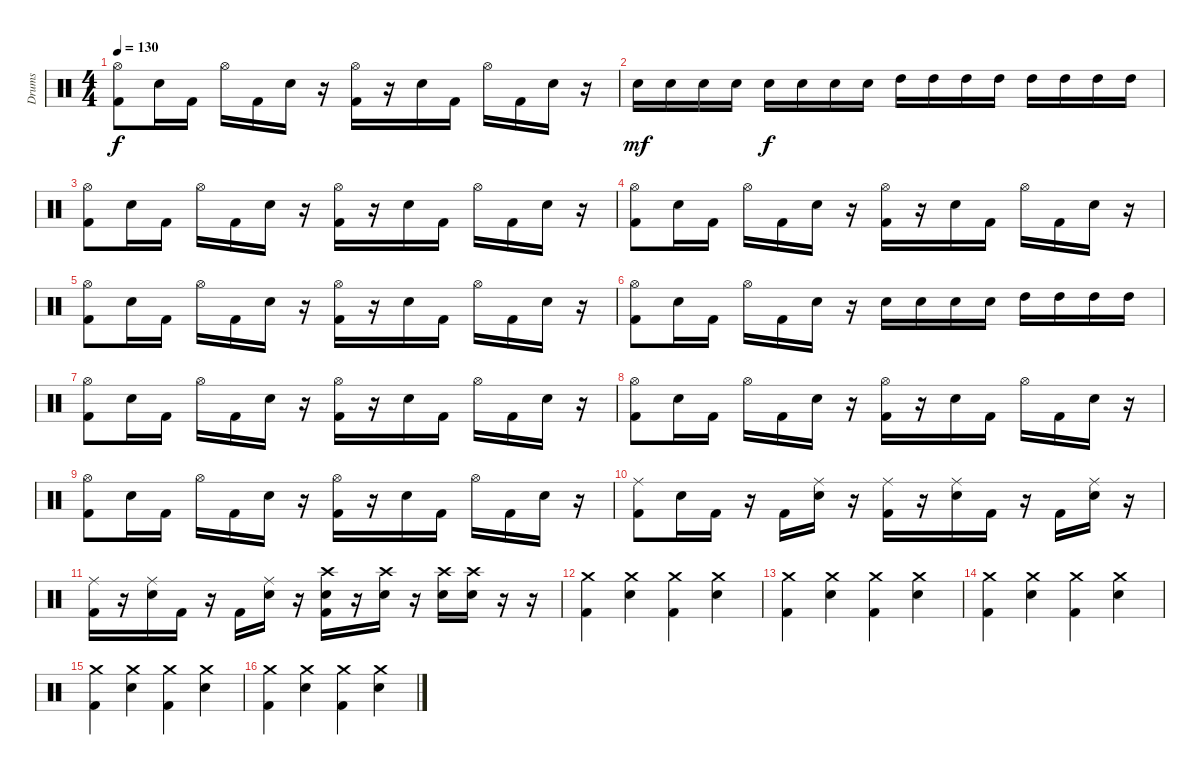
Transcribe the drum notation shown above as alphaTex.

\track ("Drums" "Drums") {instrument percussion}
\staff {score}
\articulation defaults
\ts (4 4)
\tempo 130
\clef neutral
\ks c
("Hi-Hat (open)" "Kick (hit) 2").8{dy f} "Electric Snare (hit)".16 "Kick (hit) 2".16 "Hi-Hat (open)".16 "Kick (hit) 2".16 "Electric Snare (hit)".16 r.16 ("Hi-Hat (open)" "Kick (hit) 2").16 r.16 "Electric Snare (hit)".16 "Kick (hit) 2".16 "Hi-Hat (open)".16 "Kick (hit) 2".16 "Electric Snare (hit)".16 r.16 |
"Electric Snare (hit)".16{dy mf} "Electric Snare (hit)".16 "Electric Snare (hit)".16 "Electric Snare (hit)".16 "Electric Snare (hit)".16{dy f} "Electric Snare (hit)".16 "Electric Snare (hit)".16 "Electric Snare (hit)".16 "High Tom (hit)".16 "High Tom (hit)".16 "High Tom (hit)".16 "High Tom (hit)".16 "High Tom (hit)".16 "High Tom (hit)".16 "High Tom (hit)".16 "High Tom (hit)".16 |
("Hi-Hat (open)" "Kick (hit) 2").8 "Electric Snare (hit)".16 "Kick (hit) 2".16 "Hi-Hat (open)".16 "Kick (hit) 2".16 "Electric Snare (hit)".16 r.16 ("Hi-Hat (open)" "Kick (hit) 2").16 r.16 "Electric Snare (hit)".16 "Kick (hit) 2".16 "Hi-Hat (open)".16 "Kick (hit) 2".16 "Electric Snare (hit)".16 r.16 |
("Hi-Hat (open)" "Kick (hit) 2").8 "Electric Snare (hit)".16 "Kick (hit) 2".16 "Hi-Hat (open)".16 "Kick (hit) 2".16 "Electric Snare (hit)".16 r.16 ("Hi-Hat (open)" "Kick (hit) 2").16 r.16 "Electric Snare (hit)".16 "Kick (hit) 2".16 "Hi-Hat (open)".16 "Kick (hit) 2".16 "Electric Snare (hit)".16 r.16 |
("Hi-Hat (open)" "Kick (hit) 2").8 "Electric Snare (hit)".16 "Kick (hit) 2".16 "Hi-Hat (open)".16 "Kick (hit) 2".16 "Electric Snare (hit)".16 r.16 ("Hi-Hat (open)" "Kick (hit) 2").16 r.16 "Electric Snare (hit)".16 "Kick (hit) 2".16 "Hi-Hat (open)".16 "Kick (hit) 2".16 "Electric Snare (hit)".16 r.16 |
("Hi-Hat (open)" "Kick (hit) 2").8 "Electric Snare (hit)".16 "Kick (hit) 2".16 "Hi-Hat (open)".16 "Kick (hit) 2".16 "Electric Snare (hit)".16 r.16 "Electric Snare (hit)".16 "Electric Snare (hit)".16 "Electric Snare (hit)".16 "Electric Snare (hit)".16 "High Tom (hit)".16 "High Tom (hit)".16 "High Tom (hit)".16 "High Tom (hit)".16 |
("Hi-Hat (open)" "Kick (hit) 2").8 "Electric Snare (hit)".16 "Kick (hit) 2".16 "Hi-Hat (open)".16 "Kick (hit) 2".16 "Electric Snare (hit)".16 r.16 ("Hi-Hat (open)" "Kick (hit) 2").16 r.16 "Electric Snare (hit)".16 "Kick (hit) 2".16 "Hi-Hat (open)".16 "Kick (hit) 2".16 "Electric Snare (hit)".16 r.16 |
("Hi-Hat (open)" "Kick (hit) 2").8 "Electric Snare (hit)".16 "Kick (hit) 2".16 "Hi-Hat (open)".16 "Kick (hit) 2".16 "Electric Snare (hit)".16 r.16 ("Hi-Hat (open)" "Kick (hit) 2").16 r.16 "Electric Snare (hit)".16 "Kick (hit) 2".16 "Hi-Hat (open)".16 "Kick (hit) 2".16 "Electric Snare (hit)".16 r.16 |
("Hi-Hat (open)" "Kick (hit) 2").8 "Electric Snare (hit)".16 "Kick (hit) 2".16 "Hi-Hat (open)".16 "Kick (hit) 2".16 "Electric Snare (hit)".16 r.16 ("Hi-Hat (open)" "Kick (hit) 2").16 r.16 "Electric Snare (hit)".16 "Kick (hit) 2".16 "Hi-Hat (open)".16 "Kick (hit) 2".16 "Electric Snare (hit)".16 r.16 |
("Ride (middle)" "Kick (hit) 2").8 "Electric Snare (hit)".16 "Kick (hit) 2".16 r.16 "Kick (hit) 2".16 ("Ride (middle)" "Electric Snare (hit)").16 r.16 ("Ride (middle)" "Kick (hit) 2").16 r.16 ("Ride (middle)" "Electric Snare (hit)").16 "Kick (hit) 2".16 r.16 "Kick (hit) 2".16 ("Ride (middle)" "Electric Snare (hit)").16 r.16 |
("Ride (middle)" "Kick (hit) 2").16 r.16 ("Ride (middle)" "Electric Snare (hit)").16 "Kick (hit) 2".16 r.16 "Kick (hit) 2".16 ("Ride (middle)" "Electric Snare (hit)").16 r.16 ("Crash high (hit)" "Electric Snare (hit)" "Kick (hit) 2").16 r.16 ("Crash high (hit)" "Electric Snare (hit)").16 r.16 ("Crash high (hit)" "Electric Snare (hit)").16 ("Crash high (hit)" "Electric Snare (hit)").16 r.16 r.16 |
("Crash medium (hit)" "Kick (hit) 2").4 ("Crash medium (hit)" "Electric Snare (hit)").4 ("Crash medium (hit)" "Kick (hit) 2").4 ("Crash medium (hit)" "Electric Snare (hit)").4 |
("Crash medium (hit)" "Kick (hit) 2").4 ("Crash medium (hit)" "Electric Snare (hit)").4 ("Crash medium (hit)" "Kick (hit) 2").4 ("Crash medium (hit)" "Electric Snare (hit)").4 |
("Crash medium (hit)" "Kick (hit) 2").4 ("Crash medium (hit)" "Electric Snare (hit)").4 ("Crash medium (hit)" "Kick (hit) 2").4 ("Crash medium (hit)" "Electric Snare (hit)").4 |
("Crash medium (hit)" "Kick (hit) 2").4 ("Crash medium (hit)" "Electric Snare (hit)").4 ("Crash medium (hit)" "Kick (hit) 2").4 ("Crash medium (hit)" "Electric Snare (hit)").4 |
("Crash medium (hit)" "Kick (hit) 2").4 ("Crash medium (hit)" "Electric Snare (hit)").4 ("Crash medium (hit)" "Kick (hit) 2").4 ("Crash medium (hit)" "Electric Snare (hit)").4
